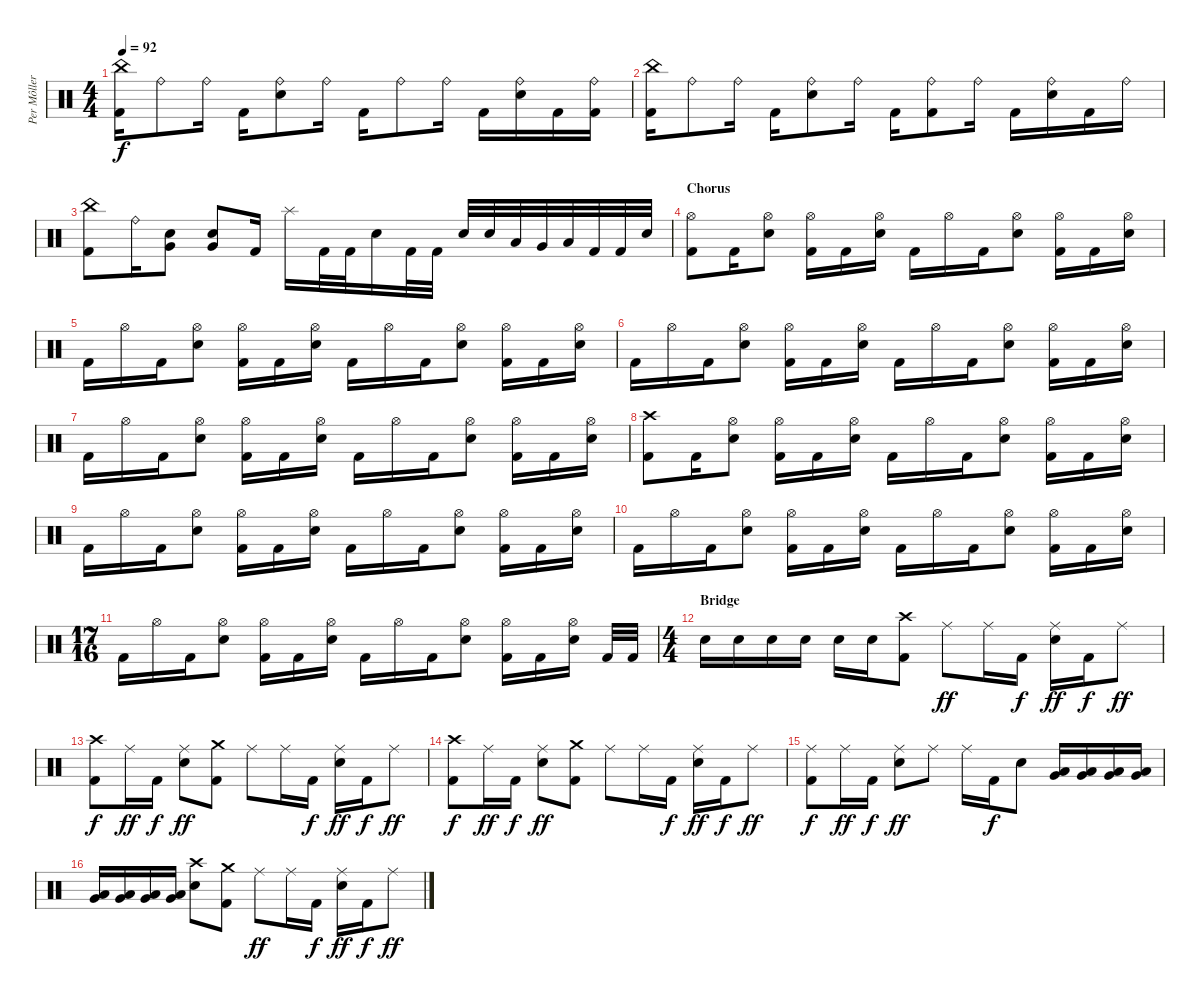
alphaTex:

\track ("Per Môller Jensen" "Per Môller") {instrument percussion}
\staff {score}
\articulation defaults
\ts (4 4)
\tempo 92
\clef neutral
\ks c
("Kick (hit) 2" "China (hit)").16{dy f} "Ride (bell)".8 "Ride (bell)".16 "Kick (hit) 2".16 ("Electric Snare (hit)" "Ride (bell)").8 "Ride (bell)".16 "Kick (hit) 2".16 "Ride (bell)".8 "Ride (bell)".16 "Kick (hit) 2".16 ("Electric Snare (hit)" "Ride (bell)").16 "Kick (hit) 2".16 ("Kick (hit) 2" "Ride (bell)").16 |
("Kick (hit) 2" "China (hit)").16 "Ride (bell)".8 "Ride (bell)".16 "Kick (hit) 2".16 ("Electric Snare (hit)" "Ride (bell)").8 "Ride (bell)".16 "Kick (hit) 2".16 ("Kick (hit) 2" "Ride (bell)").8 "Ride (bell)".16 "Kick (hit) 2".16 ("Electric Snare (hit)" "Ride (bell)").16 "Kick (hit) 2".16 "Ride (bell)".16 |
("Kick (hit) 2" "China (hit)").8 "Ride (bell)".16 ("Electric Snare (hit)" "Very Low Tom (hit)").8 ("Electric Snare (hit)" "Very Low Tom (hit)").8 "Kick (hit) 2".16 "Splash (hit)".16 "Kick (hit) 2".32 "Kick (hit) 2".32 "Electric Snare (hit)".16 "Kick (hit) 2".32 "Kick (hit) 2".32 "Electric Snare (hit)".32 "Electric Snare (hit)".32 "Low Tom (hit)".32 "Very Low Tom (hit)".32 "Low Floor Tom (hit)".32 "Kick (hit) 2".32 "Kick (hit) 2".32 "Electric Snare (hit)".32 |
\section ("" "Chorus")
("Kick (hit) 2" "Hi-Hat (open)").8 "Kick (hit) 2".16 ("Electric Snare (hit)" "Hi-Hat (open)").8 ("Kick (hit) 2" "Hi-Hat (open)").16 "Kick (hit) 2".16 ("Electric Snare (hit)" "Hi-Hat (open)").16 "Kick (hit) 2".16 "Hi-Hat (open)".16 "Kick (hit) 2".16 ("Electric Snare (hit)" "Hi-Hat (open)").8 ("Kick (hit) 2" "Hi-Hat (open)").16 "Kick (hit) 2".16 ("Electric Snare (hit)" "Hi-Hat (open)").16 |
"Kick (hit) 2".16 "Hi-Hat (open)".16 "Kick (hit) 2".16 ("Electric Snare (hit)" "Hi-Hat (open)").8 ("Kick (hit) 2" "Hi-Hat (open)").16 "Kick (hit) 2".16 ("Electric Snare (hit)" "Hi-Hat (open)").16 "Kick (hit) 2".16 "Hi-Hat (open)".16 "Kick (hit) 2".16 ("Electric Snare (hit)" "Hi-Hat (open)").8 ("Kick (hit) 2" "Hi-Hat (open)").16 "Kick (hit) 2".16 ("Electric Snare (hit)" "Hi-Hat (open)").16 |
"Kick (hit) 2".16 "Hi-Hat (open)".16 "Kick (hit) 2".16 ("Electric Snare (hit)" "Hi-Hat (open)").8 ("Kick (hit) 2" "Hi-Hat (open)").16 "Kick (hit) 2".16 ("Electric Snare (hit)" "Hi-Hat (open)").16 "Kick (hit) 2".16 "Hi-Hat (open)".16 "Kick (hit) 2".16 ("Electric Snare (hit)" "Hi-Hat (open)").8 ("Kick (hit) 2" "Hi-Hat (open)").16 "Kick (hit) 2".16 ("Electric Snare (hit)" "Hi-Hat (open)").16 |
"Kick (hit) 2".16 "Hi-Hat (open)".16 "Kick (hit) 2".16 ("Electric Snare (hit)" "Hi-Hat (open)").8 ("Kick (hit) 2" "Hi-Hat (open)").16 "Kick (hit) 2".16 ("Electric Snare (hit)" "Hi-Hat (open)").16 "Kick (hit) 2".16 "Hi-Hat (open)".16 "Kick (hit) 2".16 ("Electric Snare (hit)" "Hi-Hat (open)").8 ("Kick (hit) 2" "Hi-Hat (open)").16 "Kick (hit) 2".16 ("Electric Snare (hit)" "Hi-Hat (open)").16 |
("Kick (hit) 2" "Crash high (hit)").8 "Kick (hit) 2".16 ("Electric Snare (hit)" "Hi-Hat (open)").8 ("Kick (hit) 2" "Hi-Hat (open)").16 "Kick (hit) 2".16 ("Electric Snare (hit)" "Hi-Hat (open)").16 "Kick (hit) 2".16 "Hi-Hat (open)".16 "Kick (hit) 2".16 ("Electric Snare (hit)" "Hi-Hat (open)").8 ("Kick (hit) 2" "Hi-Hat (open)").16 "Kick (hit) 2".16 ("Electric Snare (hit)" "Hi-Hat (open)").16 |
"Kick (hit) 2".16 "Hi-Hat (open)".16 "Kick (hit) 2".16 ("Electric Snare (hit)" "Hi-Hat (open)").8 ("Kick (hit) 2" "Hi-Hat (open)").16 "Kick (hit) 2".16 ("Electric Snare (hit)" "Hi-Hat (open)").16 "Kick (hit) 2".16 "Hi-Hat (open)".16 "Kick (hit) 2".16 ("Electric Snare (hit)" "Hi-Hat (open)").8 ("Kick (hit) 2" "Hi-Hat (open)").16 "Kick (hit) 2".16 ("Electric Snare (hit)" "Hi-Hat (open)").16 |
"Kick (hit) 2".16 "Hi-Hat (open)".16 "Kick (hit) 2".16 ("Electric Snare (hit)" "Hi-Hat (open)").8 ("Kick (hit) 2" "Hi-Hat (open)").16 "Kick (hit) 2".16 ("Electric Snare (hit)" "Hi-Hat (open)").16 "Kick (hit) 2".16 "Hi-Hat (open)".16 "Kick (hit) 2".16 ("Electric Snare (hit)" "Hi-Hat (open)").8 ("Kick (hit) 2" "Hi-Hat (open)").16 "Kick (hit) 2".16 ("Electric Snare (hit)" "Hi-Hat (open)").16 |
\ts (17 16)
"Kick (hit) 2".16 "Hi-Hat (open)".16 "Kick (hit) 2".16 ("Electric Snare (hit)" "Hi-Hat (open)").8 ("Kick (hit) 2" "Hi-Hat (open)").16 "Kick (hit) 2".16 ("Electric Snare (hit)" "Hi-Hat (open)").16 "Kick (hit) 2".16 "Hi-Hat (open)".16 "Kick (hit) 2".16 ("Electric Snare (hit)" "Hi-Hat (open)").8 ("Kick (hit) 2" "Hi-Hat (open)").16 "Kick (hit) 2".16 ("Electric Snare (hit)" "Hi-Hat (open)").16 "Kick (hit) 2".32 "Kick (hit) 2".32 |
\ts (4 4)
\section ("" "Bridge")
"Electric Snare (hit)".16 "Electric Snare (hit)".16 "Electric Snare (hit)".16 "Electric Snare (hit)".16 "Electric Snare (hit)".16 "Electric Snare (hit)".16 ("Kick (hit) 2" "Crash high (hit)").8 "Ride (middle)".8{dy ff} "Ride (middle)".16 "Kick (hit) 2".16{dy f} ("Electric Snare (hit)" "Ride (middle)").16{dy ff} "Kick (hit) 2".16{dy f} "Ride (middle)".8{dy ff} |
("Kick (hit) 2" "Crash high (hit)").8{dy f} "Ride (middle)".16{dy ff} "Kick (hit) 2".16{dy f} ("Electric Snare (hit)" "Ride (middle)").8{dy ff} ("Kick (hit) 2" "Crash medium (hit)").8 "Ride (middle)".8 "Ride (middle)".16 "Kick (hit) 2".16{dy f} ("Electric Snare (hit)" "Ride (middle)").16{dy ff} "Kick (hit) 2".16{dy f} "Ride (middle)".8{dy ff} |
("Kick (hit) 2" "Crash high (hit)").8{dy f} "Ride (middle)".16{dy ff} "Kick (hit) 2".16{dy f} ("Electric Snare (hit)" "Ride (middle)").8{dy ff} ("Kick (hit) 2" "Crash medium (hit)").8 "Ride (middle)".8 "Ride (middle)".16 "Kick (hit) 2".16{dy f} ("Electric Snare (hit)" "Ride (middle)").16{dy ff} "Kick (hit) 2".16{dy f} "Ride (middle)".8{dy ff} |
("Kick (hit) 2" "Ride (middle)").8{dy f} "Ride (middle)".16{dy ff} "Kick (hit) 2".16{dy f} ("Electric Snare (hit)" "Ride (middle)").8{dy ff} "Ride (middle)".8 "Ride (middle)".16 "Kick (hit) 2".16{dy f} "Electric Snare (hit)".8 ("Low Tom (hit)" "Very Low Tom (hit)").16 ("Low Tom (hit)" "Very Low Tom (hit)").16 ("Low Tom (hit)" "Very Low Tom (hit)").16 ("Low Tom (hit)" "Very Low Tom (hit)").16 |
("Low Floor Tom (hit)" "Very Low Tom (hit)").16 ("Low Floor Tom (hit)" "Very Low Tom (hit)").16 ("Low Floor Tom (hit)" "Very Low Tom (hit)").16 ("Low Floor Tom (hit)" "Very Low Tom (hit)").16 ("Electric Snare (hit)" "Crash high (hit)").8 ("Kick (hit) 2" "Crash medium (hit)").8 "Ride (middle)".8{dy ff} "Ride (middle)".16 "Kick (hit) 2".16{dy f} ("Electric Snare (hit)" "Ride (middle)").16{dy ff} "Kick (hit) 2".16{dy f} "Ride (middle)".8{dy ff}
